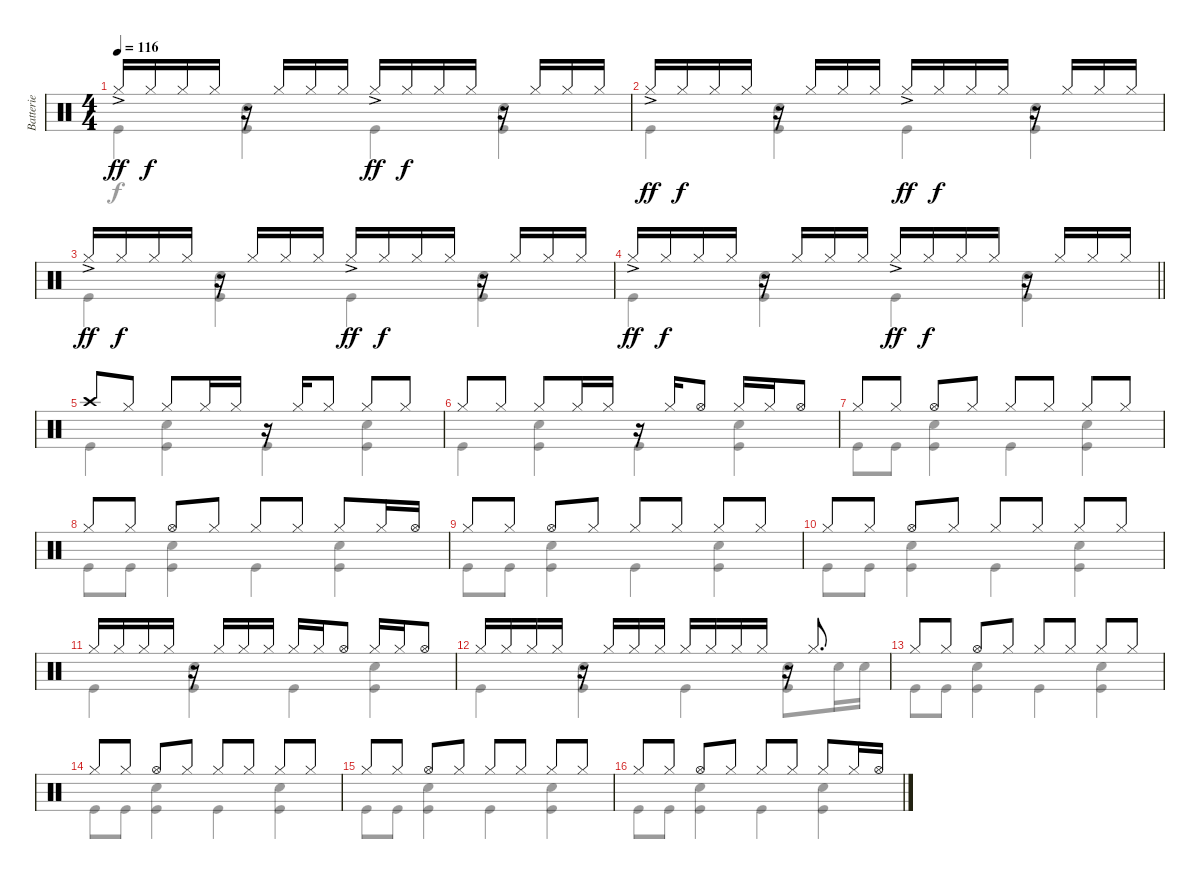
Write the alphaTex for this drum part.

\track ("Batterie" "Batterie") {instrument percussion}
\staff {score}
\articulation defaults
\voice
\ts (4 4)
\tempo 116
\clef neutral
\ks c "Hi-Hat (closed)"{ac}.16{dy ff} "Hi-Hat (closed)".16{dy f} "Hi-Hat (closed)".16 "Hi-Hat (closed)".16
r.16 "Hi-Hat (closed)".16 "Hi-Hat (closed)".16 "Hi-Hat (closed)".16 "Hi-Hat (closed)"{ac}.16{dy ff} "Hi-Hat (closed)".16{dy f} "Hi-Hat (closed)".16 "Hi-Hat (closed)".16 r.16 "Hi-Hat (closed)".16 "Hi-Hat (closed)".16 "Hi-Hat (closed)".16 |
"Hi-Hat (closed)"{ac}.16{dy ff} "Hi-Hat (closed)".16{dy f} "Hi-Hat (closed)".16 "Hi-Hat (closed)".16 r.16 "Hi-Hat (closed)".16 "Hi-Hat (closed)".16 "Hi-Hat (closed)".16 "Hi-Hat (closed)"{ac}.16{dy ff} "Hi-Hat (closed)".16{dy f} "Hi-Hat (closed)".16 "Hi-Hat (closed)".16 r.16 "Hi-Hat (closed)".16 "Hi-Hat (closed)".16 "Hi-Hat (closed)".16 |
"Hi-Hat (closed)"{ac}.16{dy ff} "Hi-Hat (closed)".16{dy f} "Hi-Hat (closed)".16 "Hi-Hat (closed)".16 r.16 "Hi-Hat (closed)".16 "Hi-Hat (closed)".16 "Hi-Hat (closed)".16 "Hi-Hat (closed)"{ac}.16{dy ff} "Hi-Hat (closed)".16{dy f} "Hi-Hat (closed)".16 "Hi-Hat (closed)".16 r.16 "Hi-Hat (closed)".16 "Hi-Hat (closed)".16 "Hi-Hat (closed)".16 |
\barLineRight lightlight "Hi-Hat (closed)"{ac}.16{dy ff} "Hi-Hat (closed)".16{dy f} "Hi-Hat (closed)".16 "Hi-Hat (closed)".16
r.16 "Hi-Hat (closed)".16 "Hi-Hat (closed)".16 "Hi-Hat (closed)".16 "Hi-Hat (closed)"{ac}.16{dy ff} "Hi-Hat (closed)".16{dy f} "Hi-Hat (closed)".16 "Hi-Hat (closed)".16 r.16 "Hi-Hat (closed)".16 "Hi-Hat (closed)".16 "Hi-Hat (closed)".16 |
"Crash high (hit)".8 "Hi-Hat (closed)".8 "Hi-Hat (closed)".8 "Hi-Hat (closed)".16 "Hi-Hat (closed)".16 r.16 "Hi-Hat (closed)".16 "Hi-Hat (closed)".8 "Hi-Hat (closed)".8 "Hi-Hat (closed)".8 |
"Hi-Hat (closed)".8 "Hi-Hat (closed)".8 "Hi-Hat (closed)".8 "Hi-Hat (closed)".16 "Hi-Hat (closed)".16 r.16 "Hi-Hat (closed)".16 "Hi-Hat (open)".8 "Hi-Hat (closed)".16 "Hi-Hat (closed)".16 "Hi-Hat (open)".8 |
"Hi-Hat (closed)".8 "Hi-Hat (closed)".8 "Hi-Hat (open)".8 "Hi-Hat (closed)".8 "Hi-Hat (closed)".8 "Hi-Hat (closed)".8 "Hi-Hat (closed)".8 "Hi-Hat (closed)".8 |
"Hi-Hat (closed)".8 "Hi-Hat (closed)".8 "Hi-Hat (open)".8 "Hi-Hat (closed)".8 "Hi-Hat (closed)".8 "Hi-Hat (closed)".8 "Hi-Hat (closed)".8 "Hi-Hat (closed)".16 "Hi-Hat (open)".16 |
"Hi-Hat (closed)".8 "Hi-Hat (closed)".8 "Hi-Hat (open)".8 "Hi-Hat (closed)".8 "Hi-Hat (closed)".8 "Hi-Hat (closed)".8 "Hi-Hat (closed)".8 "Hi-Hat (closed)".8 |
"Hi-Hat (closed)".8 "Hi-Hat (closed)".8 "Hi-Hat (open)".8 "Hi-Hat (closed)".8 "Hi-Hat (closed)".8 "Hi-Hat (closed)".8 "Hi-Hat (closed)".8 "Hi-Hat (closed)".8 |
"Hi-Hat (closed)".16 "Hi-Hat (closed)".16 "Hi-Hat (closed)".16 "Hi-Hat (closed)".16 r.16 "Hi-Hat (closed)".16 "Hi-Hat (closed)".16 "Hi-Hat (closed)".16 "Hi-Hat (closed)".16 "Hi-Hat (closed)".16 "Hi-Hat (open)".8 "Hi-Hat (closed)".16 "Hi-Hat (closed)".16 "Hi-Hat (open)".8 |
"Hi-Hat (closed)".16 "Hi-Hat (closed)".16 "Hi-Hat (closed)".16 "Hi-Hat (closed)".16 r.16 "Hi-Hat (closed)".16 "Hi-Hat (closed)".16 "Hi-Hat (closed)".16 "Hi-Hat (closed)".16 "Hi-Hat (closed)".16 "Hi-Hat (closed)".16 "Hi-Hat (closed)".16 r.16 "Hi-Hat (closed)".8{d} |
"Hi-Hat (closed)".8 "Hi-Hat (closed)".8 "Hi-Hat (open)".8 "Hi-Hat (closed)".8 "Hi-Hat (closed)".8 "Hi-Hat (closed)".8 "Hi-Hat (closed)".8 "Hi-Hat (closed)".8 |
"Hi-Hat (closed)".8 "Hi-Hat (closed)".8 "Hi-Hat (open)".8 "Hi-Hat (closed)".8 "Hi-Hat (closed)".8 "Hi-Hat (closed)".8 "Hi-Hat (closed)".8 "Hi-Hat (closed)".8 |
"Hi-Hat (closed)".8 "Hi-Hat (closed)".8 "Hi-Hat (open)".8 "Hi-Hat (closed)".8 "Hi-Hat (closed)".8 "Hi-Hat (closed)".8 "Hi-Hat (closed)".8 "Hi-Hat (closed)".8 |
"Hi-Hat (closed)".8 "Hi-Hat (closed)".8 "Hi-Hat (open)".8 "Hi-Hat (closed)".8 "Hi-Hat (closed)".8 "Hi-Hat (closed)".8 "Hi-Hat (closed)".8 "Hi-Hat (closed)".16 "Hi-Hat (open)".16
\voice
\clef neutral
\ottava regular
\simile none
\ks c "Kick (hit)".4{dy f}
("Snare (hit) 2" "Kick (hit)").4 "Kick (hit)".4 ("Snare (hit) 2" "Kick (hit)").4 |
"Kick (hit)".4 ("Snare (hit) 2" "Kick (hit)").4 "Kick (hit)".4 ("Snare (hit) 2" "Kick (hit)").4 |
"Kick (hit)".4 ("Snare (hit) 2" "Kick (hit)").4 "Kick (hit)".4 ("Snare (hit) 2" "Kick (hit)").4 |
\barLineRight lightlight "Kick (hit)".4
("Snare (hit) 2" "Kick (hit)").4 "Kick (hit)".4 ("Snare (hit) 2" "Kick (hit)").4 |
"Kick (hit)".4 ("Snare (hit) 2" "Kick (hit)").4 "Kick (hit)".4 ("Snare (hit) 2" "Kick (hit)").4 |
"Kick (hit)".4 ("Snare (hit) 2" "Kick (hit)").4 "Kick (hit)".4 ("Snare (hit) 2" "Kick (hit)").4 |
"Kick (hit)".8 "Kick (hit)".8 ("Snare (hit) 2" "Kick (hit)").4 "Kick (hit)".4 ("Snare (hit) 2" "Kick (hit)").4 |
"Kick (hit)".8 "Kick (hit)".8 ("Snare (hit) 2" "Kick (hit)").4 "Kick (hit)".4 ("Snare (hit) 2" "Kick (hit)").4 |
"Kick (hit)".8 "Kick (hit)".8 ("Snare (hit) 2" "Kick (hit)").4 "Kick (hit)".4 ("Snare (hit) 2" "Kick (hit)").4 |
"Kick (hit)".8 "Kick (hit)".8 ("Snare (hit) 2" "Kick (hit)").4 "Kick (hit)".4 ("Snare (hit) 2" "Kick (hit)").4 |
"Kick (hit)".4 ("Snare (hit) 2" "Kick (hit)").4 "Kick (hit)".4 ("Snare (hit) 2" "Kick (hit)").4 |
"Kick (hit)".4 ("Snare (hit) 2" "Kick (hit)").4 "Kick (hit)".4 ("Snare (hit) 2" "Kick (hit)").8 "Snare (hit) 2".16 "Snare (hit) 2".16 |
"Kick (hit)".8 "Kick (hit)".8 ("Snare (hit) 2" "Kick (hit)").4 "Kick (hit)".4 ("Snare (hit) 2" "Kick (hit)").4 |
"Kick (hit)".8 "Kick (hit)".8 ("Snare (hit) 2" "Kick (hit)").4 "Kick (hit)".4 ("Snare (hit) 2" "Kick (hit)").4 |
"Kick (hit)".8 "Kick (hit)".8 ("Snare (hit) 2" "Kick (hit)").4 "Kick (hit)".4 ("Snare (hit) 2" "Kick (hit)").4 |
"Kick (hit)".8 "Kick (hit)".8 ("Snare (hit) 2" "Kick (hit)").4 "Kick (hit)".4 ("Snare (hit) 2" "Kick (hit)").4
